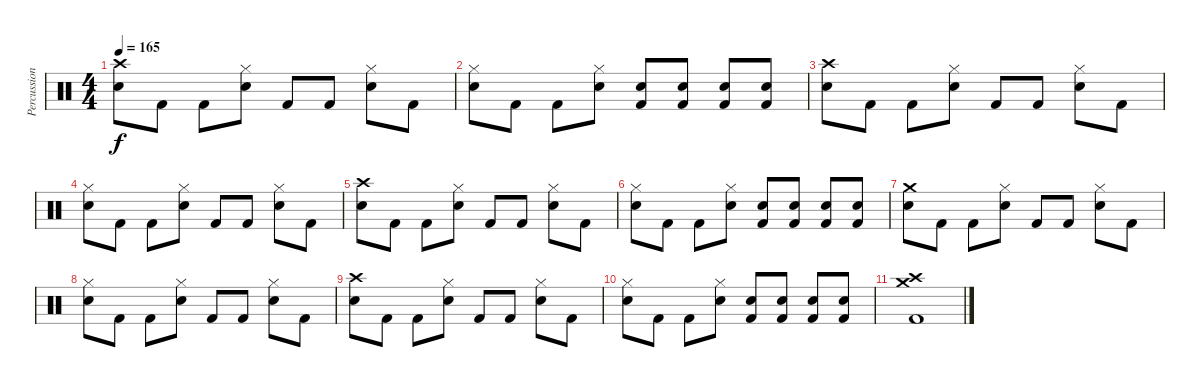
\track ("Percussion" "Percussion") {instrument percussion}
\staff {score}
\articulation defaults
\ts (4 4)
\tempo 165
\clef neutral
\ks c
("Crash high (hit)" "Electric Snare (hit)").8{dy f} "Kick (hit) 2".8 "Kick (hit) 2".8 ("Hi-Hat (closed)" "Electric Snare (hit)").8 "Kick (hit) 2".8 "Kick (hit) 2".8 ("Hi-Hat (closed)" "Electric Snare (hit)").8 "Kick (hit) 2".8 |
("Hi-Hat (closed)" "Electric Snare (hit)").8 "Kick (hit) 2".8 "Kick (hit) 2".8 ("Hi-Hat (closed)" "Electric Snare (hit)").8 ("Electric Snare (hit)" "Kick (hit) 2").8 ("Electric Snare (hit)" "Kick (hit) 2").8 ("Electric Snare (hit)" "Kick (hit) 2").8 ("Electric Snare (hit)" "Kick (hit) 2").8 |
("Crash high (hit)" "Electric Snare (hit)").8 "Kick (hit) 2".8 "Kick (hit) 2".8 ("Hi-Hat (closed)" "Electric Snare (hit)").8 "Kick (hit) 2".8 "Kick (hit) 2".8 ("Hi-Hat (closed)" "Electric Snare (hit)").8 "Kick (hit) 2".8 |
("Hi-Hat (closed)" "Electric Snare (hit)").8 "Kick (hit) 2".8 "Kick (hit) 2".8 ("Hi-Hat (closed)" "Electric Snare (hit)").8 "Kick (hit) 2".8 "Kick (hit) 2".8 ("Hi-Hat (closed)" "Electric Snare (hit)").8 "Kick (hit) 2".8 |
("Crash high (hit)" "Electric Snare (hit)").8 "Kick (hit) 2".8 "Kick (hit) 2".8 ("Hi-Hat (closed)" "Electric Snare (hit)").8 "Kick (hit) 2".8 "Kick (hit) 2".8 ("Hi-Hat (closed)" "Electric Snare (hit)").8 "Kick (hit) 2".8 |
("Hi-Hat (closed)" "Electric Snare (hit)").8 "Kick (hit) 2".8 "Kick (hit) 2".8 ("Hi-Hat (closed)" "Electric Snare (hit)").8 ("Electric Snare (hit)" "Kick (hit) 2").8 ("Electric Snare (hit)" "Kick (hit) 2").8 ("Electric Snare (hit)" "Kick (hit) 2").8 ("Electric Snare (hit)" "Kick (hit) 2").8 |
("Crash medium (hit)" "Electric Snare (hit)").8 "Kick (hit) 2".8 "Kick (hit) 2".8 ("Hi-Hat (closed)" "Electric Snare (hit)").8 "Kick (hit) 2".8 "Kick (hit) 2".8 ("Hi-Hat (closed)" "Electric Snare (hit)").8 "Kick (hit) 2".8 |
("Hi-Hat (closed)" "Electric Snare (hit)").8 "Kick (hit) 2".8 "Kick (hit) 2".8 ("Hi-Hat (closed)" "Electric Snare (hit)").8 "Kick (hit) 2".8 "Kick (hit) 2".8 ("Hi-Hat (closed)" "Electric Snare (hit)").8 "Kick (hit) 2".8 |
("Crash high (hit)" "Electric Snare (hit)").8 "Kick (hit) 2".8 "Kick (hit) 2".8 ("Hi-Hat (closed)" "Electric Snare (hit)").8 "Kick (hit) 2".8 "Kick (hit) 2".8 ("Hi-Hat (closed)" "Electric Snare (hit)").8 "Kick (hit) 2".8 |
("Hi-Hat (closed)" "Electric Snare (hit)").8 "Kick (hit) 2".8 "Kick (hit) 2".8 ("Hi-Hat (closed)" "Electric Snare (hit)").8 ("Electric Snare (hit)" "Kick (hit) 2").8 ("Electric Snare (hit)" "Kick (hit) 2").8 ("Electric Snare (hit)" "Kick (hit) 2").8 ("Electric Snare (hit)" "Kick (hit) 2").8 |
("Crash high (hit)" "Crash medium (hit)" "Kick (hit) 2").1
